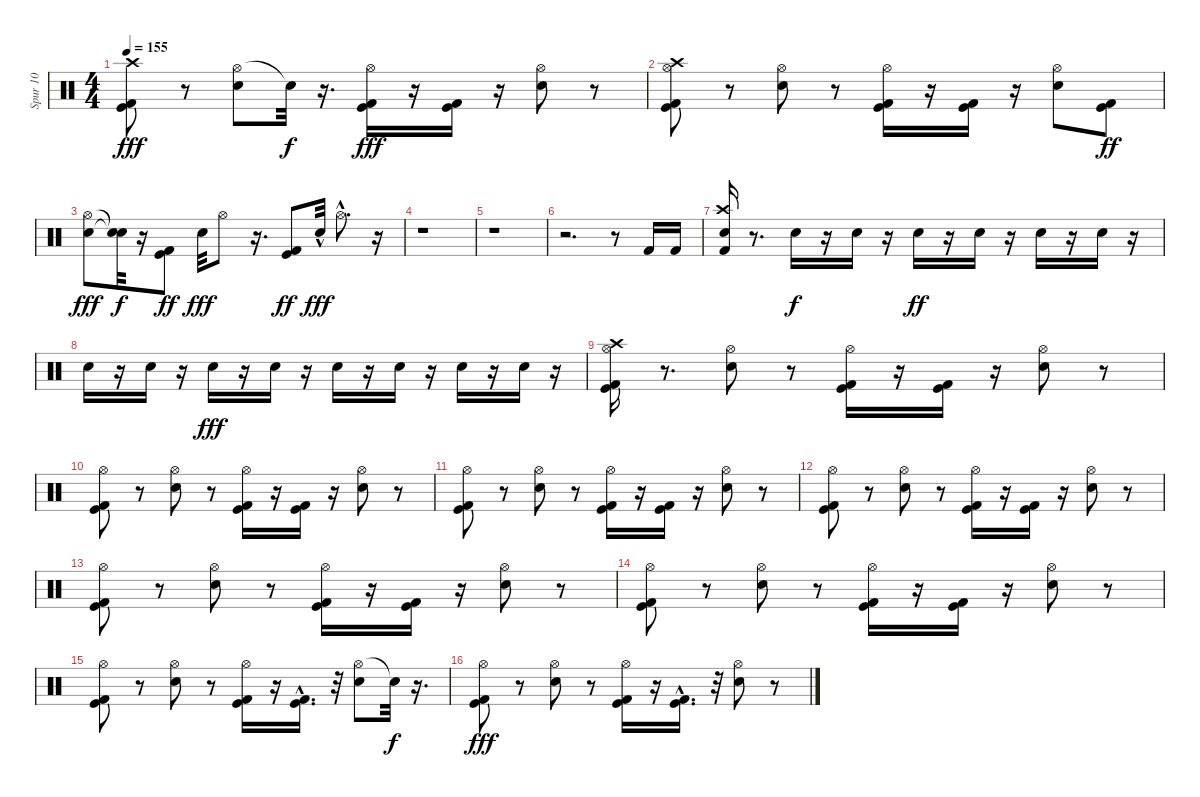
\track ("Spur 10" "Spur 10") {instrument percussion}
\staff {score}
\articulation defaults
\ts (4 4)
\tempo 155
\clef neutral
\ks c
("Kick (hit) 2" "Kick (hit)" "Crash high (hit)").8{dy fff} r.8 ("Hi-Hat (open)" "Electric Snare (hit)").8 "Snare (hit)"{t}.32{dy f} r.16{d} ("Kick (hit)" "Hi-Hat (open)" "Kick (hit) 2").16{dy fff} r.16 ("Kick (hit)" "Kick (hit) 2").16 r.16 ("Hi-Hat (open)" "Electric Snare (hit)").8 r.8 |
("Crash high (hit)" "Kick (hit)" "Hi-Hat (open)" "Kick (hit) 2").8 r.8 ("Hi-Hat (open)" "Electric Snare (hit)").8 r.8 ("Kick (hit)" "Hi-Hat (open)" "Kick (hit) 2").16 r.16 ("Kick (hit)" "Kick (hit) 2").16 r.16 ("Hi-Hat (open)" "Electric Snare (hit)").8 ("Kick (hit)" "Kick (hit) 2").8{dy ff} |
("Electric Snare (hit)" "Hi-Hat (open)").8{dy fff} ("Snare (hit)"{t} "Snare (hit)"{t}).32{dy f} r.16 ("Kick (hit)" "Kick (hit) 2").8{dy ff} "Electric Snare (hit)".32{dy fff} "Hi-Hat (open)".8 r.16{d} ("Kick (hit) 2" "Kick (hit)").8{dy ff} "Electric Snare (hit)"{hac}.32{dy fff} "Hi-Hat (open)"{hac}.8{d} r.16 |
r.1 |
r.1 |
r.2{d} r.8 "Kick (hit) 2".16 "Kick (hit) 2".16 |
("Kick (hit) 2" "Crash high (hit)" "Electric Snare (hit)").16 r.8{d} "Electric Snare (hit)".16{dy f} r.16 "Electric Snare (hit)".16 r.16 "Electric Snare (hit)".16{dy ff} r.16 "Electric Snare (hit)".16 r.16 "Electric Snare (hit)".16 r.16 "Electric Snare (hit)".16 r.16 |
"Electric Snare (hit)".16 r.16 "Electric Snare (hit)".16 r.16 "Electric Snare (hit)".16{dy fff} r.16 "Electric Snare (hit)".16 r.16 "Electric Snare (hit)".16 r.16 "Electric Snare (hit)".16 r.16 "Electric Snare (hit)".16 r.16 "Electric Snare (hit)".16 r.16 |
("Kick (hit)" "Crash high (hit)" "Hi-Hat (open)" "Kick (hit) 2").16 r.8{d} ("Hi-Hat (open)" "Electric Snare (hit)").8 r.8 ("Kick (hit)" "Hi-Hat (open)" "Kick (hit) 2").16 r.16 ("Kick (hit)" "Kick (hit) 2").16 r.16 ("Hi-Hat (open)" "Electric Snare (hit)").8 r.8 |
("Kick (hit)" "Hi-Hat (open)" "Kick (hit) 2").8 r.8 ("Hi-Hat (open)" "Electric Snare (hit)").8 r.8 ("Kick (hit)" "Hi-Hat (open)" "Kick (hit) 2").16 r.16 ("Kick (hit)" "Kick (hit) 2").16 r.16 ("Hi-Hat (open)" "Electric Snare (hit)").8 r.8 |
("Kick (hit)" "Hi-Hat (open)" "Kick (hit) 2").8 r.8 ("Hi-Hat (open)" "Electric Snare (hit)").8 r.8 ("Kick (hit)" "Hi-Hat (open)" "Kick (hit) 2").16 r.16 ("Kick (hit)" "Kick (hit) 2").16 r.16 ("Hi-Hat (open)" "Electric Snare (hit)").8 r.8 |
("Kick (hit)" "Hi-Hat (open)" "Kick (hit) 2").8 r.8 ("Hi-Hat (open)" "Electric Snare (hit)").8 r.8 ("Kick (hit)" "Hi-Hat (open)" "Kick (hit) 2").16 r.16 ("Kick (hit)" "Kick (hit) 2").16 r.16 ("Hi-Hat (open)" "Electric Snare (hit)").8 r.8 |
("Kick (hit)" "Hi-Hat (open)" "Kick (hit) 2").8 r.8 ("Hi-Hat (open)" "Electric Snare (hit)").8 r.8 ("Kick (hit)" "Hi-Hat (open)" "Kick (hit) 2").16 r.16 ("Kick (hit)" "Kick (hit) 2").16 r.16 ("Hi-Hat (open)" "Electric Snare (hit)").8 r.8 |
("Kick (hit)" "Hi-Hat (open)" "Kick (hit) 2").8 r.8 ("Hi-Hat (open)" "Electric Snare (hit)").8 r.8 ("Kick (hit)" "Hi-Hat (open)" "Kick (hit) 2").16 r.16 ("Kick (hit)" "Kick (hit) 2").16 r.16 ("Hi-Hat (open)" "Electric Snare (hit)").8 r.8 |
("Kick (hit)" "Hi-Hat (open)" "Kick (hit) 2").8 r.8 ("Hi-Hat (open)" "Electric Snare (hit)").8 r.8 ("Kick (hit)" "Hi-Hat (open)" "Kick (hit) 2").16 r.16 ("Kick (hit)"{hac} "Kick (hit) 2"{hac}).16{d} r.32 ("Hi-Hat (open)" "Electric Snare (hit)").8 "Snare (hit)"{t}.32{dy f} r.16{d} |
("Kick (hit)" "Hi-Hat (open)" "Kick (hit) 2").8{dy fff} r.8 ("Hi-Hat (open)" "Electric Snare (hit)").8 r.8 ("Kick (hit)" "Hi-Hat (open)" "Kick (hit) 2").16 r.16 ("Kick (hit)"{hac} "Kick (hit) 2"{hac}).16{d} r.32 ("Hi-Hat (open)" "Electric Snare (hit)").8 r.8
